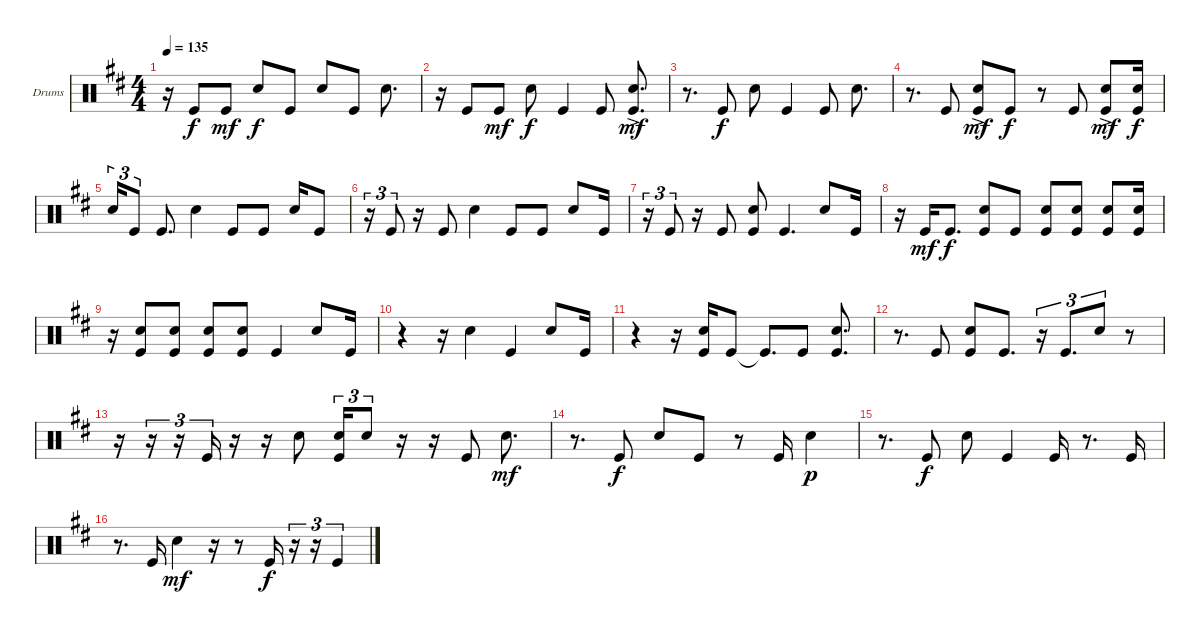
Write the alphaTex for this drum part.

\bracketExtendMode groupsimilarinstruments
\firstSystemTrackNameOrientation horizontal
\otherSystemsTrackNameOrientation horizontal
\track ("Kick" "Drums") {instrument percussion}
\staff {score}
\articulation defaults
\ts (4 4)
\tempo 135
\clef neutral
\ks d
r.16{dy f} "Kick (hit)".8 "Kick (hit)".8{dy mf} "Snare (hit) 2".8{dy f} "Kick (hit)".8 "Snare (hit) 2".8 "Kick (hit)".8 "Snare (hit) 2".8{d} |
r.16 "Kick (hit)".8 "Kick (hit)".8{dy mf} "Snare (hit) 2".8{dy f} "Kick (hit)".4 "Kick (hit)".8 ("Kick (hit)" "Snare (hit) 2"{ac}).8{d dy mf} |
r.8{d} "Kick (hit)".8{dy f} "Snare (hit) 2".8 "Kick (hit)".4 "Kick (hit)".8 "Snare (hit) 2".8{d} |
r.8{d} "Kick (hit)".8 ("Kick (hit)" "Snare (hit) 2"{ac}).8{dy mf} "Kick (hit)".8{dy f} r.8 "Kick (hit)".8 ("Kick (hit)" "Snare (hit) 2"{ac}).8{dy mf} ("Kick (hit)" "Snare (hit) 2").16{dy f} |
"Snare (hit) 2".16{tu (3 2)} "Kick (hit)".8{tu (3 2)} "Kick (hit)".8{d} "Snare (hit) 2".4 "Kick (hit)".8 "Kick (hit)".8 "Snare (hit) 2".16 "Kick (hit)".8 |
r.16{tu (3 2)} "Kick (hit)".8{tu (3 2)} r.16 "Kick (hit)".8 "Snare (hit) 2".4 "Kick (hit)".8 "Kick (hit)".8 "Snare (hit) 2".8 "Kick (hit)".16 |
r.16{tu (3 2)} "Kick (hit)".8{tu (3 2)} r.16 "Kick (hit)".8 ("Kick (hit)" "Snare (hit) 2").8 "Kick (hit)".4{d} "Snare (hit) 2".8 "Kick (hit)".16 |
r.16 "Kick (hit)".16{dy mf} "Kick (hit)".8{d dy f} ("Kick (hit)" "Snare (hit) 2").8 "Kick (hit)".8 ("Kick (hit)" "Snare (hit) 2").8 ("Kick (hit)" "Snare (hit) 2").8 ("Kick (hit)" "Snare (hit) 2").8 ("Kick (hit)" "Snare (hit) 2").16 |
r.16 ("Kick (hit)" "Snare (hit) 2").8 ("Kick (hit)" "Snare (hit) 2").8 ("Kick (hit)" "Snare (hit) 2").8 ("Kick (hit)" "Snare (hit) 2").8 "Kick (hit)".4 "Snare (hit) 2".8 "Kick (hit)".16 |
r.4 r.16 "Snare (hit) 2".4 "Kick (hit)".4 "Snare (hit) 2".8 "Kick (hit)".16 |
r.4 r.16 ("Kick (hit)" "Snare (hit) 2").16 "Kick (hit)".8 "Kick (hit)"{t}.8{d} "Kick (hit)".8 ("Kick (hit)" "Snare (hit) 2").8{d} |
r.8{d} "Kick (hit)".8 ("Kick (hit)" "Snare (hit) 2").8 "Kick (hit)".8{d} r.16{tu (3 2)} "Kick (hit)".8{d tu (3 2)} "Snare (hit) 2".8{tu (3 2)} r.8 |
r.16 r.16{tu (3 2)} r.16{tu (3 2)} "Kick (hit)".16{tu (3 2)} r.16 r.16 "Snare (hit) 2".8 ("Kick (hit)" "Snare (hit) 2").16{tu (3 2)} "Snare (hit) 2".8{tu (3 2)} r.16 r.16 "Kick (hit)".8 "Snare (hit) 2".8{d dy mf} |
r.8{d} "Kick (hit)".8{dy f} "Snare (hit) 2".8 "Kick (hit)".8 r.8 "Kick (hit)".16 "Snare (hit) 2".4{dy p} |
r.8{d} "Kick (hit)".8{dy f} "Snare (hit) 2".8 "Kick (hit)".4 "Kick (hit)".16 r.8{d} "Kick (hit)".16 |
r.8{d} "Kick (hit)".16 "Snare (hit) 2".4{dy mf} r.16 r.8 "Kick (hit)".16{dy f} r.16{tu (3 2)} r.16{tu (3 2)} "Kick (hit)".4{tu (3 2)}
